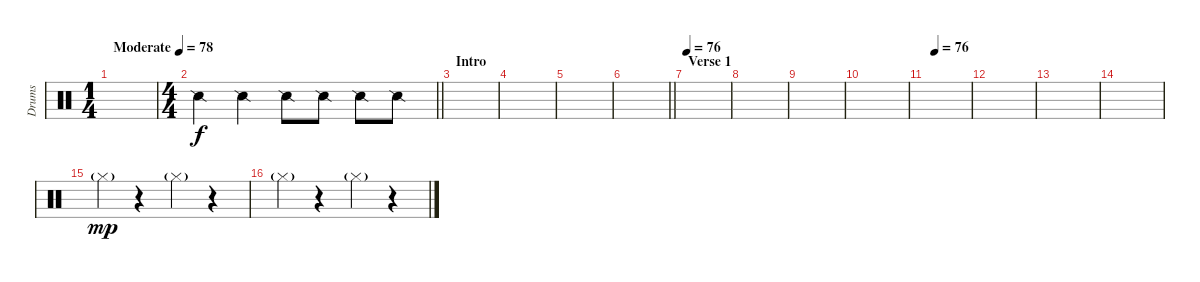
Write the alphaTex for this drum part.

\track ("Drums" "Drums") {instrument percussion}
\staff {score}
\articulation defaults
\ts (1 4)
\tempo (78 "Moderate")
\tempo 74
\tempo (78 "Moderate")
\clef neutral
\ks c
|
\ts (4 4)
\barLineRight lightlight "Snare (side stick) 2".4 "Snare (side stick) 2".4 "Snare (side stick) 2".8 "Snare (side stick) 2".8 "Snare (side stick) 2".8 "Snare (side stick) 2".8
|
\section ("" "Intro")
|
|
|
\barLineRight lightlight
|
\section ("" "Verse 1")
\tempo 76
|
|
|
|
\tempo (76 0.1875)
|
|
|
|
"Hi-Hat (closed)"{g}.4{dy mp} r.4 "Hi-Hat (closed)"{g}.4 r.4 |
"Hi-Hat (closed)"{g}.4 r.4 "Hi-Hat (closed)"{g}.4 r.4
